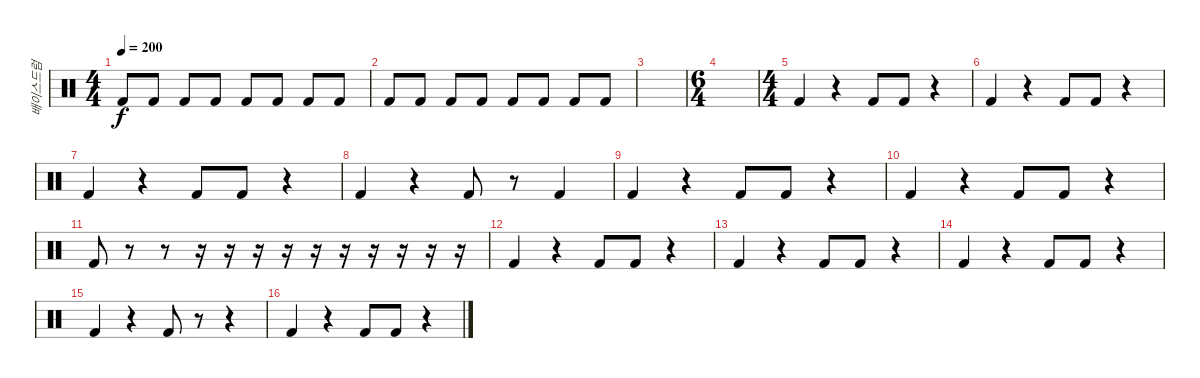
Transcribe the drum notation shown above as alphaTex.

\track ("배이스드럼" "배이스드럼") {instrument percussion}
\staff {score}
\articulation defaults
\ts (4 4)
\tempo 200
\clef neutral
\ks c "Kick (hit) 2".8{dy f} "Kick (hit) 2".8 "Kick (hit) 2".8 "Kick (hit) 2".8 "Kick (hit) 2".8 "Kick (hit) 2".8 "Kick (hit) 2".8 "Kick (hit) 2".8
|
"Kick (hit) 2".8 "Kick (hit) 2".8 "Kick (hit) 2".8 "Kick (hit) 2".8 "Kick (hit) 2".8 "Kick (hit) 2".8 "Kick (hit) 2".8 "Kick (hit) 2".8 |
|
\ts (6 4)
|
\ts (4 4)
"Kick (hit) 2".4 r.4 "Kick (hit) 2".8 "Kick (hit) 2".8 r.4 |
"Kick (hit) 2".4 r.4 "Kick (hit) 2".8 "Kick (hit) 2".8 r.4 |
"Kick (hit) 2".4 r.4 "Kick (hit) 2".8 "Kick (hit) 2".8 r.4 |
"Kick (hit) 2".4 r.4 "Kick (hit) 2".8 r.8 "Kick (hit) 2".4 |
"Kick (hit) 2".4 r.4 "Kick (hit) 2".8 "Kick (hit) 2".8 r.4 |
"Kick (hit) 2".4 r.4 "Kick (hit) 2".8 "Kick (hit) 2".8 r.4 |
"Kick (hit) 2".8 r.8 r.8 r.16 r.16 r.16 r.16 r.16 r.16 r.16 r.16 r.16 r.16 |
"Kick (hit) 2".4 r.4 "Kick (hit) 2".8 "Kick (hit) 2".8 r.4 |
"Kick (hit) 2".4 r.4 "Kick (hit) 2".8 "Kick (hit) 2".8 r.4 |
"Kick (hit) 2".4 r.4 "Kick (hit) 2".8 "Kick (hit) 2".8 r.4 |
"Kick (hit) 2".4 r.4 "Kick (hit) 2".8 r.8 r.4 |
"Kick (hit) 2".4 r.4 "Kick (hit) 2".8 "Kick (hit) 2".8 r.4
